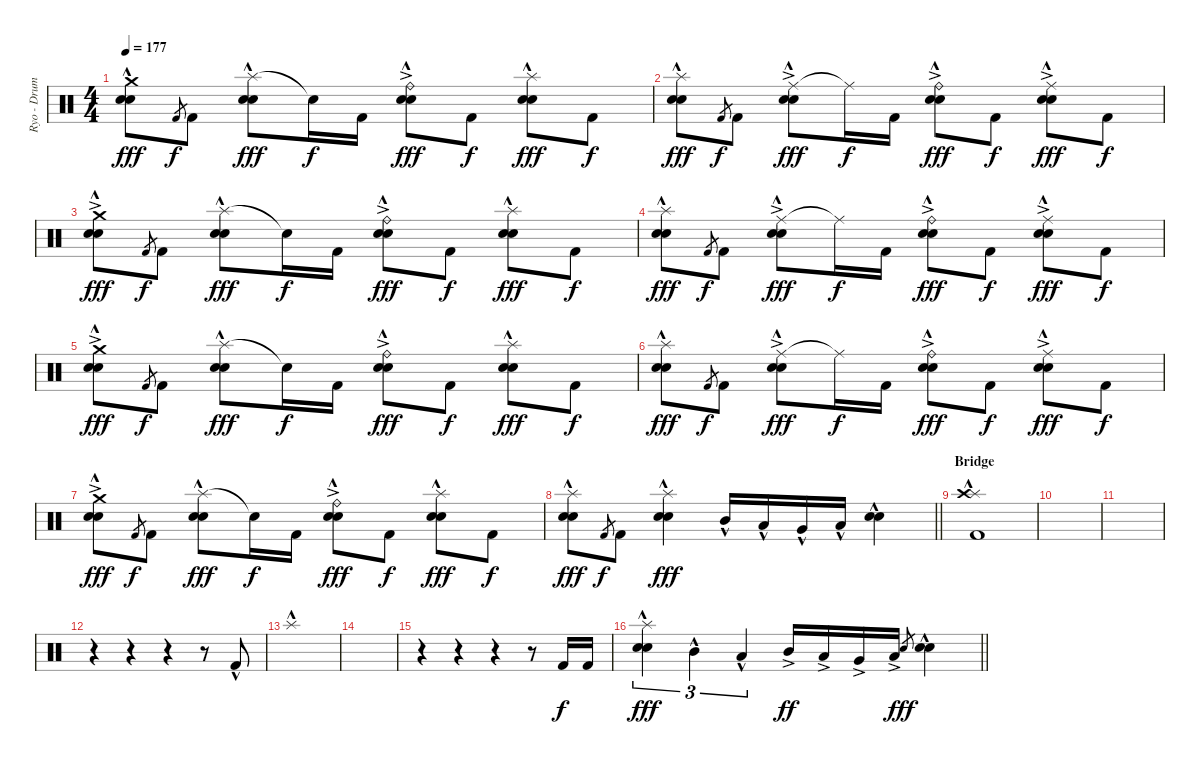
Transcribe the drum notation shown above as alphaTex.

\track ("Ryo - Drums" "Ryo - Drum") {instrument percussion}
\staff {score}
\articulation defaults
\ts (4 4)
\section ("" "")
\tempo 177
\clef neutral
\ks c
("Crash medium (hit)" "Electric Snare (hit)"{hac} "Snare (hit) 2"{hac}).8{dy fff} "Kick (hit) 2".8{gr dy f} "Kick (hit) 2".8 ("Splash (hit)" "Electric Snare (hit)"{hac} "Snare (hit) 2"{hac}).8{dy fff} "Snare (hit)"{t}.16{dy f} "Kick (hit) 2".16 ("Ride (bell)"{ac} "Electric Snare (hit)"{hac} "Snare (hit) 2"{hac}).8{dy fff} "Kick (hit) 2".8{dy f} ("Splash (hit)" "Electric Snare (hit)"{hac} "Snare (hit) 2"{hac}).8{dy fff} "Kick (hit) 2".8{dy f} |
("Splash (hit)" "Electric Snare (hit)"{hac} "Snare (hit) 2"{hac}).8{dy fff} "Kick (hit) 2".8{gr dy f} "Kick (hit) 2".8 ("Ride (middle)"{ac} "Electric Snare (hit)"{hac} "Snare (hit) 2"{hac}).8{dy fff} "Ride (middle)"{t}.16{dy f} "Kick (hit) 2".16 ("Ride (bell)"{ac} "Electric Snare (hit)"{hac} "Snare (hit) 2"{hac}).8{dy fff} "Kick (hit) 2".8{dy f} ("Ride (middle)"{ac} "Electric Snare (hit)"{hac} "Snare (hit) 2"{hac}).8{dy fff} "Kick (hit) 2".8{dy f} |
("Crash medium (hit)"{ac} "Electric Snare (hit)"{hac} "Snare (hit) 2"{hac}).8{dy fff} "Kick (hit) 2".8{gr dy f} "Kick (hit) 2".8 ("Splash (hit)" "Electric Snare (hit)"{hac} "Snare (hit) 2"{hac}).8{dy fff} "Snare (hit)"{t}.16{dy f} "Kick (hit) 2".16 ("Ride (bell)"{ac} "Electric Snare (hit)"{hac} "Snare (hit) 2"{hac}).8{dy fff} "Kick (hit) 2".8{dy f} ("Splash (hit)" "Electric Snare (hit)"{hac} "Snare (hit) 2"{hac}).8{dy fff} "Kick (hit) 2".8{dy f} |
("Splash (hit)" "Electric Snare (hit)"{hac} "Snare (hit) 2"{hac}).8{dy fff} "Kick (hit) 2".8{gr dy f} "Kick (hit) 2".8 ("Ride (middle)"{ac} "Electric Snare (hit)"{hac} "Snare (hit) 2"{hac}).8{dy fff} "Ride (middle)"{t}.16{dy f} "Kick (hit) 2".16 ("Ride (bell)"{ac} "Electric Snare (hit)"{hac} "Snare (hit) 2"{hac}).8{dy fff} "Kick (hit) 2".8{dy f} ("Ride (middle)"{ac} "Electric Snare (hit)"{hac} "Snare (hit) 2"{hac}).8{dy fff} "Kick (hit) 2".8{dy f} |
("Crash medium (hit)"{ac} "Electric Snare (hit)"{hac} "Snare (hit) 2"{hac}).8{dy fff} "Kick (hit) 2".8{gr dy f} "Kick (hit) 2".8 ("Splash (hit)" "Electric Snare (hit)"{hac} "Snare (hit) 2"{hac}).8{dy fff} "Snare (hit)"{t}.16{dy f} "Kick (hit) 2".16 ("Ride (bell)"{ac} "Electric Snare (hit)"{hac} "Snare (hit) 2"{hac}).8{dy fff} "Kick (hit) 2".8{dy f} ("Splash (hit)" "Electric Snare (hit)"{hac} "Snare (hit) 2"{hac}).8{dy fff} "Kick (hit) 2".8{dy f} |
("Splash (hit)" "Electric Snare (hit)"{hac} "Snare (hit) 2"{hac}).8{dy fff} "Kick (hit) 2".8{gr dy f} "Kick (hit) 2".8 ("Ride (middle)"{ac} "Electric Snare (hit)"{hac} "Snare (hit) 2"{hac}).8{dy fff} "Ride (middle)"{t}.16{dy f} "Kick (hit) 2".16 ("Ride (bell)"{ac} "Electric Snare (hit)"{hac} "Snare (hit) 2"{hac}).8{dy fff} "Kick (hit) 2".8{dy f} ("Ride (middle)"{ac} "Electric Snare (hit)"{hac} "Snare (hit) 2"{hac}).8{dy fff} "Kick (hit) 2".8{dy f} |
("Crash medium (hit)"{ac} "Electric Snare (hit)"{hac} "Snare (hit) 2"{hac}).8{dy fff} "Kick (hit) 2".8{gr dy f} "Kick (hit) 2".8 ("Splash (hit)" "Electric Snare (hit)"{hac} "Snare (hit) 2"{hac}).8{dy fff} "Snare (hit)"{t}.16{dy f} "Kick (hit) 2".16 ("Ride (bell)"{ac} "Electric Snare (hit)"{hac} "Snare (hit) 2"{hac}).8{dy fff} "Kick (hit) 2".8{dy f} ("Splash (hit)" "Electric Snare (hit)"{hac} "Snare (hit) 2"{hac}).8{dy fff} "Kick (hit) 2".8{dy f} |
\barLineRight lightlight
("Splash (hit)"{hac} "Electric Snare (hit)"{hac} "Snare (hit) 2"{hac}).8{dy fff} "Kick (hit) 2".8{gr dy f} "Kick (hit) 2".8 ("Splash (hit)"{hac} "Electric Snare (hit)"{hac} "Snare (hit) 2"{hac}).4{dy fff} "Mid Tom (hit)"{hac}.16 "Low Tom (hit)"{hac}.16 "Very Low Tom (hit)"{hac}.16 "Low Floor Tom (hit)"{hac}.16 ("Electric Snare (hit)"{hac} "Snare (hit) 2"{hac}).4 |
\section ("" "Bridge")
("Splash (hit)"{hac} "Crash high (hit)"{hac} "Kick (hit) 2").1 |
|
|
r.4 r.4 r.4 r.8 "Kick (hit) 2"{hac}.8 |
"Splash (hit)"{hac}.1 |
|
r.4 r.4 r.4 r.8 "Kick (hit) 2".16{dy f} "Kick (hit) 2".16 |
\barLineRight lightlight
("Splash (hit)"{hac} "Electric Snare (hit)"{hac} "Snare (hit) 2"{hac}).4{tu (3 2) dy fff} "Mid Tom (hit)"{hac}.4{tu (3 2)} "Low Tom (hit)"{hac}.4{tu (3 2)} "Mid Tom (hit)"{ac}.16{dy ff} "Low Tom (hit)"{ac}.16 "Very Low Tom (hit)"{ac}.16 "Low Floor Tom (hit)"{ac}.16 "Electric Snare (hit)".8{gr dy fff} ("Electric Snare (hit)"{hac} "Snare (hit) 2"{hac}).4
